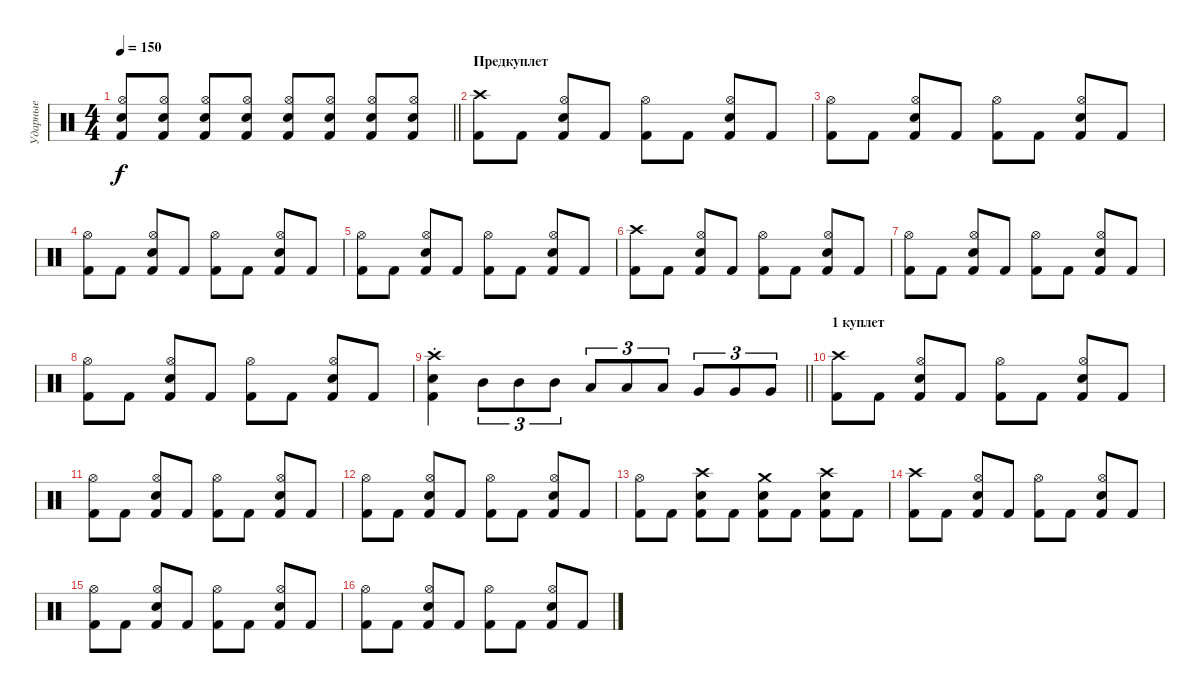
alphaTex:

\track ("Ударные" "Ударные") {instrument percussion}
\staff {score}
\articulation defaults
\ts (4 4)
\tempo 150
\clef neutral
\barLineRight lightlight
\ks c
("Snare (hit) 2" "Hi-Hat (open)" "Kick (hit) 2").8{dy f} ("Snare (hit) 2" "Hi-Hat (open)" "Kick (hit) 2").8 ("Snare (hit) 2" "Hi-Hat (open)" "Kick (hit) 2").8 ("Snare (hit) 2" "Hi-Hat (open)" "Kick (hit) 2").8 ("Snare (hit) 2" "Hi-Hat (open)" "Kick (hit) 2").8 ("Snare (hit) 2" "Hi-Hat (open)" "Kick (hit) 2").8 ("Snare (hit) 2" "Hi-Hat (open)" "Kick (hit) 2").8 ("Snare (hit) 2" "Hi-Hat (open)" "Kick (hit) 2").8 |
\section ("" "Предкуплет")
("Kick (hit) 2" "Crash high (hit)").8 "Kick (hit) 2".8 ("Snare (hit) 2" "Kick (hit) 2" "Hi-Hat (open)").8 "Kick (hit) 2".8 ("Kick (hit) 2" "Hi-Hat (open)").8 "Kick (hit) 2".8 ("Snare (hit) 2" "Kick (hit) 2" "Hi-Hat (open)").8 "Kick (hit) 2".8 |
("Kick (hit) 2" "Hi-Hat (open)").8 "Kick (hit) 2".8 ("Snare (hit) 2" "Kick (hit) 2" "Hi-Hat (open)").8 "Kick (hit) 2".8 ("Kick (hit) 2" "Hi-Hat (open)").8 "Kick (hit) 2".8 ("Snare (hit) 2" "Kick (hit) 2" "Hi-Hat (open)").8 "Kick (hit) 2".8 |
("Kick (hit) 2" "Hi-Hat (open)").8 "Kick (hit) 2".8 ("Snare (hit) 2" "Kick (hit) 2" "Hi-Hat (open)").8 "Kick (hit) 2".8 ("Kick (hit) 2" "Hi-Hat (open)").8 "Kick (hit) 2".8 ("Snare (hit) 2" "Kick (hit) 2" "Hi-Hat (open)").8 "Kick (hit) 2".8 |
("Kick (hit) 2" "Hi-Hat (open)").8 "Kick (hit) 2".8 ("Snare (hit) 2" "Kick (hit) 2" "Hi-Hat (open)").8 "Kick (hit) 2".8 ("Kick (hit) 2" "Hi-Hat (open)").8 "Kick (hit) 2".8 ("Snare (hit) 2" "Kick (hit) 2" "Hi-Hat (open)").8 "Kick (hit) 2".8 |
("Kick (hit) 2" "Crash high (hit)").8 "Kick (hit) 2".8 ("Snare (hit) 2" "Kick (hit) 2" "Hi-Hat (open)").8 "Kick (hit) 2".8 ("Kick (hit) 2" "Hi-Hat (open)").8 "Kick (hit) 2".8 ("Snare (hit) 2" "Kick (hit) 2" "Hi-Hat (open)").8 "Kick (hit) 2".8 |
("Kick (hit) 2" "Hi-Hat (open)").8 "Kick (hit) 2".8 ("Snare (hit) 2" "Kick (hit) 2" "Hi-Hat (open)").8 "Kick (hit) 2".8 ("Kick (hit) 2" "Hi-Hat (open)").8 "Kick (hit) 2".8 ("Snare (hit) 2" "Kick (hit) 2" "Hi-Hat (open)").8 "Kick (hit) 2".8 |
("Kick (hit) 2" "Hi-Hat (open)").8 "Kick (hit) 2".8 ("Snare (hit) 2" "Kick (hit) 2" "Hi-Hat (open)").8 "Kick (hit) 2".8 ("Kick (hit) 2" "Hi-Hat (open)").8 "Kick (hit) 2".8 ("Snare (hit) 2" "Kick (hit) 2" "Hi-Hat (open)").8 "Kick (hit) 2".8 |
\barLineRight lightlight
("Kick (hit) 2"{st} "Snare (hit) 2"{st} "Crash high (hit)"{st}).4 "Mid Tom (hit)".8{tu (3 2)} "Mid Tom (hit)".8{tu (3 2)} "Mid Tom (hit)".8{tu (3 2)} "Low Tom (hit)".8{tu (3 2)} "Low Tom (hit)".8{tu (3 2)} "Low Tom (hit)".8{tu (3 2)} "Very Low Tom (hit)".8{tu (3 2)} "Very Low Tom (hit)".8{tu (3 2)} "Very Low Tom (hit)".8{tu (3 2)} |
\section ("" "1 куплет")
("Kick (hit) 2" "Crash high (hit)").8 "Kick (hit) 2".8 ("Snare (hit) 2" "Kick (hit) 2" "Hi-Hat (open)").8 "Kick (hit) 2".8 ("Kick (hit) 2" "Hi-Hat (open)").8 "Kick (hit) 2".8 ("Snare (hit) 2" "Kick (hit) 2" "Hi-Hat (open)").8 "Kick (hit) 2".8 |
("Kick (hit) 2" "Hi-Hat (open)").8 "Kick (hit) 2".8 ("Snare (hit) 2" "Kick (hit) 2" "Hi-Hat (open)").8 "Kick (hit) 2".8 ("Kick (hit) 2" "Hi-Hat (open)").8 "Kick (hit) 2".8 ("Snare (hit) 2" "Kick (hit) 2" "Hi-Hat (open)").8 "Kick (hit) 2".8 |
("Kick (hit) 2" "Hi-Hat (open)").8 "Kick (hit) 2".8 ("Snare (hit) 2" "Kick (hit) 2" "Hi-Hat (open)").8 "Kick (hit) 2".8 ("Kick (hit) 2" "Hi-Hat (open)").8 "Kick (hit) 2".8 ("Snare (hit) 2" "Kick (hit) 2" "Hi-Hat (open)").8 "Kick (hit) 2".8 |
("Kick (hit) 2" "Hi-Hat (open)").8 "Kick (hit) 2".8 ("Snare (hit) 2" "Kick (hit) 2" "Crash high (hit)").8 "Kick (hit) 2".8 ("Kick (hit) 2" "Snare (hit) 2" "Crash medium (hit)").8 "Kick (hit) 2".8 ("Snare (hit) 2" "Kick (hit) 2" "Crash high (hit)").8 "Kick (hit) 2".8 |
("Kick (hit) 2" "Crash high (hit)").8 "Kick (hit) 2".8 ("Snare (hit) 2" "Kick (hit) 2" "Hi-Hat (open)").8 "Kick (hit) 2".8 ("Kick (hit) 2" "Hi-Hat (open)").8 "Kick (hit) 2".8 ("Snare (hit) 2" "Kick (hit) 2" "Hi-Hat (open)").8 "Kick (hit) 2".8 |
("Kick (hit) 2" "Hi-Hat (open)").8 "Kick (hit) 2".8 ("Snare (hit) 2" "Kick (hit) 2" "Hi-Hat (open)").8 "Kick (hit) 2".8 ("Kick (hit) 2" "Hi-Hat (open)").8 "Kick (hit) 2".8 ("Snare (hit) 2" "Kick (hit) 2" "Hi-Hat (open)").8 "Kick (hit) 2".8 |
("Kick (hit) 2" "Hi-Hat (open)").8 "Kick (hit) 2".8 ("Snare (hit) 2" "Kick (hit) 2" "Hi-Hat (open)").8 "Kick (hit) 2".8 ("Kick (hit) 2" "Hi-Hat (open)").8 "Kick (hit) 2".8 ("Snare (hit) 2" "Kick (hit) 2" "Hi-Hat (open)").8 "Kick (hit) 2".8
